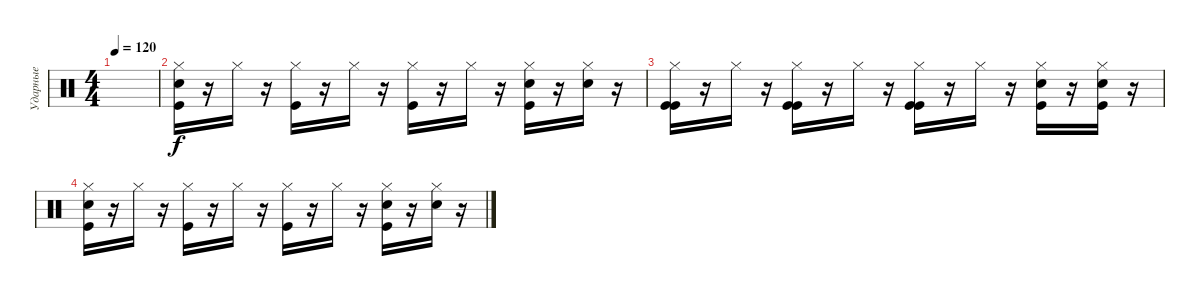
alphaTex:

\track ("Ударные" "Ударные") {instrument percussion}
\staff {score}
\articulation defaults
\ts (4 4)
\tempo 120
\clef neutral
\ks c
|
("Hi-Hat (closed)" "Snare (hit) 2" "Kick (hit)").16 r.16 "Hi-Hat (closed)".16 r.16 ("Hi-Hat (closed)" "Kick (hit)").16 r.16 "Hi-Hat (closed)".16 r.16 ("Hi-Hat (closed)" "Kick (hit)").16 r.16 "Hi-Hat (closed)".16 r.16 ("Hi-Hat (closed)" "Snare (hit) 2" "Kick (hit)").16 r.16 ("Hi-Hat (closed)" "Snare (hit) 2").16 r.16 |
("Hi-Hat (closed)" "Kick (hit)" "Kick (hit)").16 r.16 "Hi-Hat (closed)".16 r.16 ("Hi-Hat (closed)" "Kick (hit)" "Kick (hit)").16 r.16 "Hi-Hat (closed)".16 r.16 ("Hi-Hat (closed)" "Kick (hit)" "Kick (hit)").16 r.16 "Hi-Hat (closed)".16 r.16 ("Hi-Hat (closed)" "Snare (hit) 2" "Kick (hit)").16 r.16 ("Hi-Hat (closed)" "Snare (hit) 2" "Kick (hit)").16 r.16 |
("Hi-Hat (closed)" "Snare (hit) 2" "Kick (hit)").16 r.16 "Hi-Hat (closed)".16 r.16 ("Hi-Hat (closed)" "Kick (hit)").16 r.16 "Hi-Hat (closed)".16 r.16 ("Hi-Hat (closed)" "Kick (hit)").16 r.16 "Hi-Hat (closed)".16 r.16 ("Hi-Hat (closed)" "Snare (hit) 2" "Kick (hit)").16 r.16 ("Hi-Hat (closed)" "Snare (hit) 2").16 r.16
